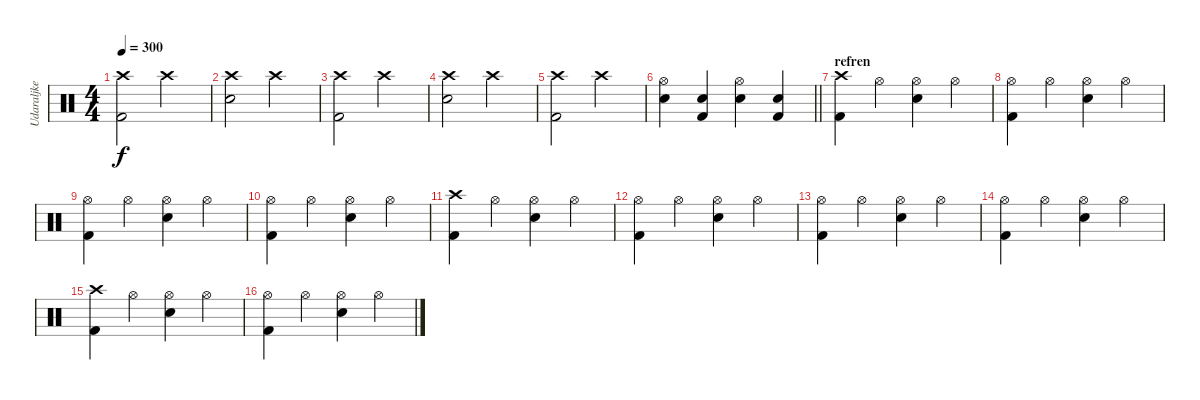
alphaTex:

\track ("Udaraljke" "Udaraljke") {instrument percussion}
\staff {score}
\articulation defaults
\ts (4 4)
\tempo 300
\clef neutral
\ks c
("Crash high (hit)" "Kick (hit) 2").2{dy f} "Crash high (hit)".2 |
("Crash high (hit)" "Electric Snare (hit)").2 "Crash high (hit)".2 |
("Crash high (hit)" "Kick (hit) 2").2 "Crash high (hit)".2 |
("Crash high (hit)" "Electric Snare (hit)").2 "Crash high (hit)".2 |
("Crash high (hit)" "Kick (hit) 2").2 "Crash high (hit)".2 |
\barLineRight lightlight
("Hi-Hat (open)" "Electric Snare (hit)").4 ("Kick (hit) 2" "Electric Snare (hit)").4 ("Hi-Hat (open)" "Electric Snare (hit)").4 ("Kick (hit) 2" "Electric Snare (hit)").4 |
\section ("" "refren")
("Crash high (hit)" "Kick (hit) 2").4 "Hi-Hat (open)".4 ("Hi-Hat (open)" "Electric Snare (hit)").4 "Hi-Hat (open)".4 |
("Hi-Hat (open)" "Kick (hit) 2").4 "Hi-Hat (open)".4 ("Hi-Hat (open)" "Electric Snare (hit)").4 "Hi-Hat (open)".4 |
("Hi-Hat (open)" "Kick (hit) 2").4 "Hi-Hat (open)".4 ("Hi-Hat (open)" "Electric Snare (hit)").4 "Hi-Hat (open)".4 |
("Hi-Hat (open)" "Kick (hit) 2").4 "Hi-Hat (open)".4 ("Hi-Hat (open)" "Electric Snare (hit)").4 "Hi-Hat (open)".4 |
("Crash high (hit)" "Kick (hit) 2").4 "Hi-Hat (open)".4 ("Hi-Hat (open)" "Electric Snare (hit)").4 "Hi-Hat (open)".4 |
("Hi-Hat (open)" "Kick (hit) 2").4 "Hi-Hat (open)".4 ("Hi-Hat (open)" "Electric Snare (hit)").4 "Hi-Hat (open)".4 |
("Hi-Hat (open)" "Kick (hit) 2").4 "Hi-Hat (open)".4 ("Hi-Hat (open)" "Electric Snare (hit)").4 "Hi-Hat (open)".4 |
("Hi-Hat (open)" "Kick (hit) 2").4 "Hi-Hat (open)".4 ("Hi-Hat (open)" "Electric Snare (hit)").4 "Hi-Hat (open)".4 |
("Crash high (hit)" "Kick (hit) 2").4 "Hi-Hat (open)".4 ("Hi-Hat (open)" "Electric Snare (hit)").4 "Hi-Hat (open)".4 |
("Hi-Hat (open)" "Kick (hit) 2").4 "Hi-Hat (open)".4 ("Hi-Hat (open)" "Electric Snare (hit)").4 "Hi-Hat (open)".4
